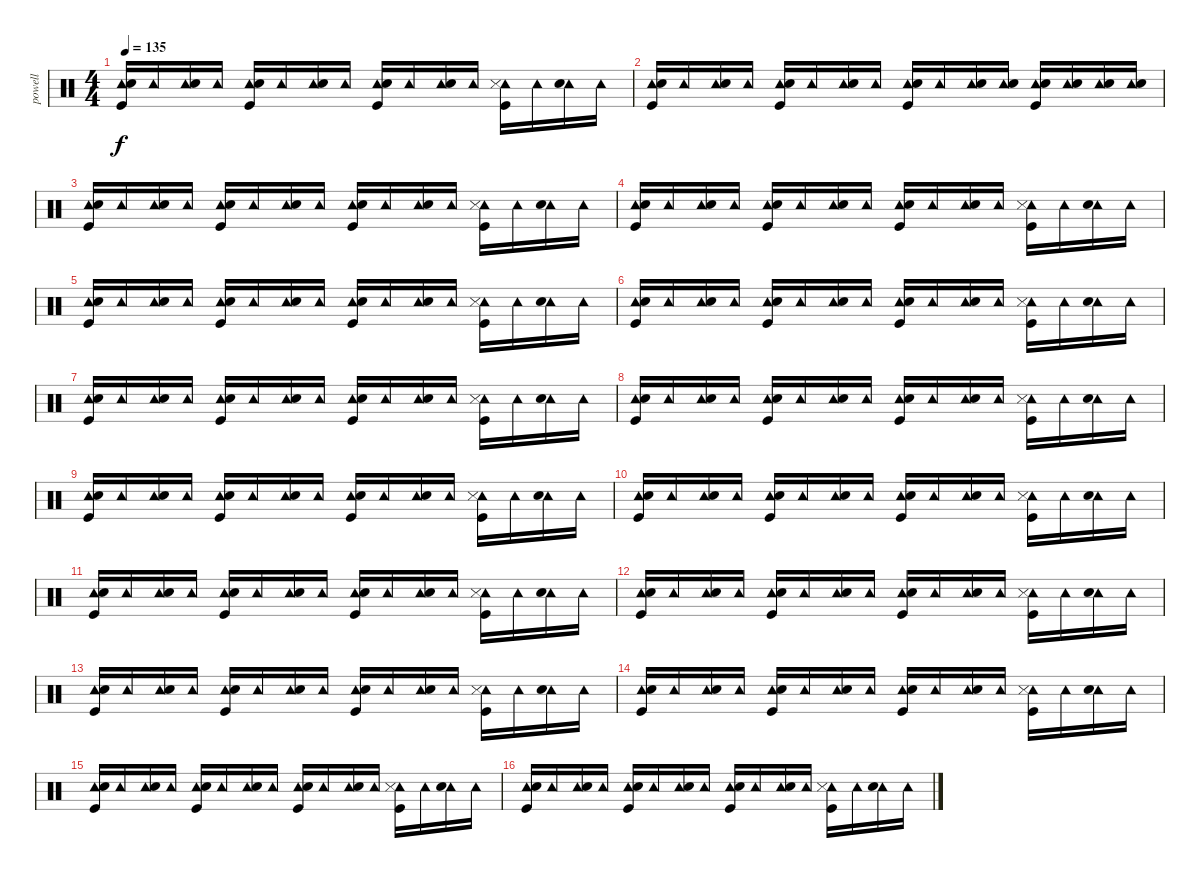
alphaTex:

\track ("powell" "powell") {instrument percussion}
\staff {score}
\articulation defaults
\ts (4 4)
\tempo 135
\clef neutral
\ks c
("Tambourine (hit)" "Electric Snare (hit)" "Kick (hit)").16{dy f} "Tambourine (hit)".16 ("Tambourine (hit)" "Electric Snare (hit)").16 "Tambourine (hit)".16 ("Tambourine (hit)" "Electric Snare (hit)" "Kick (hit)").16 "Tambourine (hit)".16 ("Tambourine (hit)" "Electric Snare (hit)").16 "Tambourine (hit)".16 ("Tambourine (hit)" "Electric Snare (hit)" "Kick (hit)").16 "Tambourine (hit)".16 ("Tambourine (hit)" "Electric Snare (hit)").16 "Tambourine (hit)".16 ("Tambourine (hit)" "Snare (side stick) 3" "Kick (hit)").16 "Tambourine (hit)".16 ("Tambourine (hit)" "Electric Snare (hit)").16 "Tambourine (hit)".16 |
("Tambourine (hit)" "Electric Snare (hit)" "Kick (hit)").16 "Tambourine (hit)".16 ("Tambourine (hit)" "Electric Snare (hit)").16 "Tambourine (hit)".16 ("Tambourine (hit)" "Electric Snare (hit)" "Kick (hit)").16 "Tambourine (hit)".16 ("Tambourine (hit)" "Electric Snare (hit)").16 "Tambourine (hit)".16 ("Tambourine (hit)" "Electric Snare (hit)" "Kick (hit)").16 "Tambourine (hit)".16 ("Tambourine (hit)" "Electric Snare (hit)").16 ("Tambourine (hit)" "Electric Snare (hit)").16 ("Tambourine (hit)" "Electric Snare (hit)" "Kick (hit)").16 ("Tambourine (hit)" "Electric Snare (hit)").16 ("Tambourine (hit)" "Electric Snare (hit)").16 ("Tambourine (hit)" "Electric Snare (hit)").16 |
("Tambourine (hit)" "Electric Snare (hit)" "Kick (hit)").16 "Tambourine (hit)".16 ("Tambourine (hit)" "Electric Snare (hit)").16 "Tambourine (hit)".16 ("Tambourine (hit)" "Electric Snare (hit)" "Kick (hit)").16 "Tambourine (hit)".16 ("Tambourine (hit)" "Electric Snare (hit)").16 "Tambourine (hit)".16 ("Tambourine (hit)" "Electric Snare (hit)" "Kick (hit)").16 "Tambourine (hit)".16 ("Tambourine (hit)" "Electric Snare (hit)").16 "Tambourine (hit)".16 ("Tambourine (hit)" "Snare (side stick) 3" "Kick (hit)").16 "Tambourine (hit)".16 ("Tambourine (hit)" "Electric Snare (hit)").16 "Tambourine (hit)".16 |
("Tambourine (hit)" "Electric Snare (hit)" "Kick (hit)").16 "Tambourine (hit)".16 ("Tambourine (hit)" "Electric Snare (hit)").16 "Tambourine (hit)".16 ("Tambourine (hit)" "Electric Snare (hit)" "Kick (hit)").16 "Tambourine (hit)".16 ("Tambourine (hit)" "Electric Snare (hit)").16 "Tambourine (hit)".16 ("Tambourine (hit)" "Electric Snare (hit)" "Kick (hit)").16 "Tambourine (hit)".16 ("Tambourine (hit)" "Electric Snare (hit)").16 "Tambourine (hit)".16 ("Tambourine (hit)" "Snare (side stick) 3" "Kick (hit)").16 "Tambourine (hit)".16 ("Tambourine (hit)" "Electric Snare (hit)").16 "Tambourine (hit)".16 |
("Tambourine (hit)" "Electric Snare (hit)" "Kick (hit)").16 "Tambourine (hit)".16 ("Tambourine (hit)" "Electric Snare (hit)").16 "Tambourine (hit)".16 ("Tambourine (hit)" "Electric Snare (hit)" "Kick (hit)").16 "Tambourine (hit)".16 ("Tambourine (hit)" "Electric Snare (hit)").16 "Tambourine (hit)".16 ("Tambourine (hit)" "Electric Snare (hit)" "Kick (hit)").16 "Tambourine (hit)".16 ("Tambourine (hit)" "Electric Snare (hit)").16 "Tambourine (hit)".16 ("Tambourine (hit)" "Snare (side stick) 3" "Kick (hit)").16 "Tambourine (hit)".16 ("Tambourine (hit)" "Electric Snare (hit)").16 "Tambourine (hit)".16 |
("Tambourine (hit)" "Electric Snare (hit)" "Kick (hit)").16 "Tambourine (hit)".16 ("Tambourine (hit)" "Electric Snare (hit)").16 "Tambourine (hit)".16 ("Tambourine (hit)" "Electric Snare (hit)" "Kick (hit)").16 "Tambourine (hit)".16 ("Tambourine (hit)" "Electric Snare (hit)").16 "Tambourine (hit)".16 ("Tambourine (hit)" "Electric Snare (hit)" "Kick (hit)").16 "Tambourine (hit)".16 ("Tambourine (hit)" "Electric Snare (hit)").16 "Tambourine (hit)".16 ("Tambourine (hit)" "Snare (side stick) 3" "Kick (hit)").16 "Tambourine (hit)".16 ("Tambourine (hit)" "Electric Snare (hit)").16 "Tambourine (hit)".16 |
("Tambourine (hit)" "Electric Snare (hit)" "Kick (hit)").16 "Tambourine (hit)".16 ("Tambourine (hit)" "Electric Snare (hit)").16 "Tambourine (hit)".16 ("Tambourine (hit)" "Electric Snare (hit)" "Kick (hit)").16 "Tambourine (hit)".16 ("Tambourine (hit)" "Electric Snare (hit)").16 "Tambourine (hit)".16 ("Tambourine (hit)" "Electric Snare (hit)" "Kick (hit)").16 "Tambourine (hit)".16 ("Tambourine (hit)" "Electric Snare (hit)").16 "Tambourine (hit)".16 ("Tambourine (hit)" "Snare (side stick) 3" "Kick (hit)").16 "Tambourine (hit)".16 ("Tambourine (hit)" "Electric Snare (hit)").16 "Tambourine (hit)".16 |
("Tambourine (hit)" "Electric Snare (hit)" "Kick (hit)").16 "Tambourine (hit)".16 ("Tambourine (hit)" "Electric Snare (hit)").16 "Tambourine (hit)".16 ("Tambourine (hit)" "Electric Snare (hit)" "Kick (hit)").16 "Tambourine (hit)".16 ("Tambourine (hit)" "Electric Snare (hit)").16 "Tambourine (hit)".16 ("Tambourine (hit)" "Electric Snare (hit)" "Kick (hit)").16 "Tambourine (hit)".16 ("Tambourine (hit)" "Electric Snare (hit)").16 "Tambourine (hit)".16 ("Tambourine (hit)" "Snare (side stick) 3" "Kick (hit)").16 "Tambourine (hit)".16 ("Tambourine (hit)" "Electric Snare (hit)").16 "Tambourine (hit)".16 |
("Tambourine (hit)" "Electric Snare (hit)" "Kick (hit)").16 "Tambourine (hit)".16 ("Tambourine (hit)" "Electric Snare (hit)").16 "Tambourine (hit)".16 ("Tambourine (hit)" "Electric Snare (hit)" "Kick (hit)").16 "Tambourine (hit)".16 ("Tambourine (hit)" "Electric Snare (hit)").16 "Tambourine (hit)".16 ("Tambourine (hit)" "Electric Snare (hit)" "Kick (hit)").16 "Tambourine (hit)".16 ("Tambourine (hit)" "Electric Snare (hit)").16 "Tambourine (hit)".16 ("Tambourine (hit)" "Snare (side stick) 3" "Kick (hit)").16 "Tambourine (hit)".16 ("Tambourine (hit)" "Electric Snare (hit)").16 "Tambourine (hit)".16 |
("Tambourine (hit)" "Electric Snare (hit)" "Kick (hit)").16 "Tambourine (hit)".16 ("Tambourine (hit)" "Electric Snare (hit)").16 "Tambourine (hit)".16 ("Tambourine (hit)" "Electric Snare (hit)" "Kick (hit)").16 "Tambourine (hit)".16 ("Tambourine (hit)" "Electric Snare (hit)").16 "Tambourine (hit)".16 ("Tambourine (hit)" "Electric Snare (hit)" "Kick (hit)").16 "Tambourine (hit)".16 ("Tambourine (hit)" "Electric Snare (hit)").16 "Tambourine (hit)".16 ("Tambourine (hit)" "Snare (side stick) 3" "Kick (hit)").16 "Tambourine (hit)".16 ("Tambourine (hit)" "Electric Snare (hit)").16 "Tambourine (hit)".16 |
("Tambourine (hit)" "Electric Snare (hit)" "Kick (hit)").16 "Tambourine (hit)".16 ("Tambourine (hit)" "Electric Snare (hit)").16 "Tambourine (hit)".16 ("Tambourine (hit)" "Electric Snare (hit)" "Kick (hit)").16 "Tambourine (hit)".16 ("Tambourine (hit)" "Electric Snare (hit)").16 "Tambourine (hit)".16 ("Tambourine (hit)" "Electric Snare (hit)" "Kick (hit)").16 "Tambourine (hit)".16 ("Tambourine (hit)" "Electric Snare (hit)").16 "Tambourine (hit)".16 ("Tambourine (hit)" "Snare (side stick) 3" "Kick (hit)").16 "Tambourine (hit)".16 ("Tambourine (hit)" "Electric Snare (hit)").16 "Tambourine (hit)".16 |
("Tambourine (hit)" "Electric Snare (hit)" "Kick (hit)").16 "Tambourine (hit)".16 ("Tambourine (hit)" "Electric Snare (hit)").16 "Tambourine (hit)".16 ("Tambourine (hit)" "Electric Snare (hit)" "Kick (hit)").16 "Tambourine (hit)".16 ("Tambourine (hit)" "Electric Snare (hit)").16 "Tambourine (hit)".16 ("Tambourine (hit)" "Electric Snare (hit)" "Kick (hit)").16 "Tambourine (hit)".16 ("Tambourine (hit)" "Electric Snare (hit)").16 "Tambourine (hit)".16 ("Tambourine (hit)" "Snare (side stick) 3" "Kick (hit)").16 "Tambourine (hit)".16 ("Tambourine (hit)" "Electric Snare (hit)").16 "Tambourine (hit)".16 |
("Tambourine (hit)" "Electric Snare (hit)" "Kick (hit)").16 "Tambourine (hit)".16 ("Tambourine (hit)" "Electric Snare (hit)").16 "Tambourine (hit)".16 ("Tambourine (hit)" "Electric Snare (hit)" "Kick (hit)").16 "Tambourine (hit)".16 ("Tambourine (hit)" "Electric Snare (hit)").16 "Tambourine (hit)".16 ("Tambourine (hit)" "Electric Snare (hit)" "Kick (hit)").16 "Tambourine (hit)".16 ("Tambourine (hit)" "Electric Snare (hit)").16 "Tambourine (hit)".16 ("Tambourine (hit)" "Snare (side stick) 3" "Kick (hit)").16 "Tambourine (hit)".16 ("Tambourine (hit)" "Electric Snare (hit)").16 "Tambourine (hit)".16 |
("Tambourine (hit)" "Electric Snare (hit)" "Kick (hit)").16 "Tambourine (hit)".16 ("Tambourine (hit)" "Electric Snare (hit)").16 "Tambourine (hit)".16 ("Tambourine (hit)" "Electric Snare (hit)" "Kick (hit)").16 "Tambourine (hit)".16 ("Tambourine (hit)" "Electric Snare (hit)").16 "Tambourine (hit)".16 ("Tambourine (hit)" "Electric Snare (hit)" "Kick (hit)").16 "Tambourine (hit)".16 ("Tambourine (hit)" "Electric Snare (hit)").16 "Tambourine (hit)".16 ("Tambourine (hit)" "Snare (side stick) 3" "Kick (hit)").16 "Tambourine (hit)".16 ("Tambourine (hit)" "Electric Snare (hit)").16 "Tambourine (hit)".16 |
("Tambourine (hit)" "Electric Snare (hit)" "Kick (hit)").16 "Tambourine (hit)".16 ("Tambourine (hit)" "Electric Snare (hit)").16 "Tambourine (hit)".16 ("Tambourine (hit)" "Electric Snare (hit)" "Kick (hit)").16 "Tambourine (hit)".16 ("Tambourine (hit)" "Electric Snare (hit)").16 "Tambourine (hit)".16 ("Tambourine (hit)" "Electric Snare (hit)" "Kick (hit)").16 "Tambourine (hit)".16 ("Tambourine (hit)" "Electric Snare (hit)").16 "Tambourine (hit)".16 ("Tambourine (hit)" "Snare (side stick) 3" "Kick (hit)").16 "Tambourine (hit)".16 ("Tambourine (hit)" "Electric Snare (hit)").16 "Tambourine (hit)".16 |
("Tambourine (hit)" "Electric Snare (hit)" "Kick (hit)").16 "Tambourine (hit)".16 ("Tambourine (hit)" "Electric Snare (hit)").16 "Tambourine (hit)".16 ("Tambourine (hit)" "Electric Snare (hit)" "Kick (hit)").16 "Tambourine (hit)".16 ("Tambourine (hit)" "Electric Snare (hit)").16 "Tambourine (hit)".16 ("Tambourine (hit)" "Electric Snare (hit)" "Kick (hit)").16 "Tambourine (hit)".16 ("Tambourine (hit)" "Electric Snare (hit)").16 "Tambourine (hit)".16 ("Tambourine (hit)" "Snare (side stick) 3" "Kick (hit)").16 "Tambourine (hit)".16 ("Tambourine (hit)" "Electric Snare (hit)").16 "Tambourine (hit)".16
